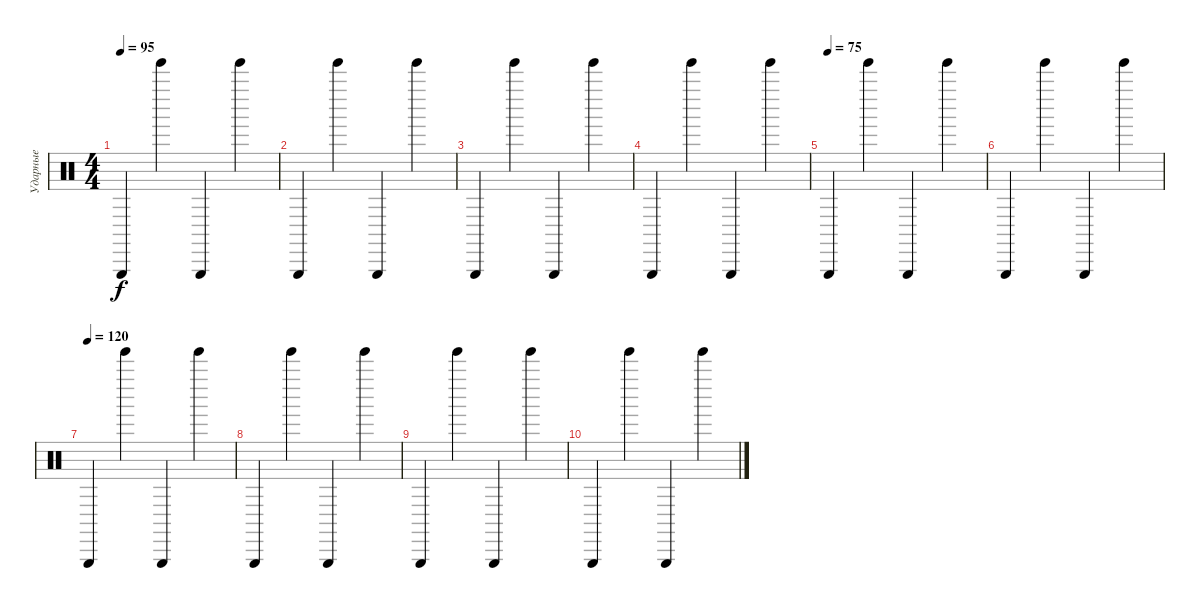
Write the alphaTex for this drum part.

\track ("Ударные" "Ударные") {instrument percussion}
\staff {score}
\articulation defaults
\ts (4 4)
\tempo 95
\clef neutral
\ks c "Triangle (hit)".4{dy f} "Tinkle Bell (hit)".4 "Triangle (hit)".4 "Tinkle Bell (hit)".4
|
"Triangle (hit)".4 "Tinkle Bell (hit)".4 "Triangle (hit)".4 "Tinkle Bell (hit)".4 |
"Triangle (hit)".4 "Tinkle Bell (hit)".4 "Triangle (hit)".4 "Tinkle Bell (hit)".4 |
"Triangle (hit)".4 "Tinkle Bell (hit)".4 "Triangle (hit)".4 "Tinkle Bell (hit)".4 |
\tempo (75)
"Triangle (hit)".4 "Tinkle Bell (hit)".4 "Triangle (hit)".4 "Tinkle Bell (hit)".4 |
"Triangle (hit)".4 "Tinkle Bell (hit)".4 "Triangle (hit)".4 "Tinkle Bell (hit)".4 |
\tempo (120)
"Triangle (hit)".4 "Tinkle Bell (hit)".4 "Triangle (hit)".4 "Tinkle Bell (hit)".4 |
"Triangle (hit)".4 "Tinkle Bell (hit)".4 "Triangle (hit)".4 "Tinkle Bell (hit)".4 |
"Triangle (hit)".4{volume 14} "Tinkle Bell (hit)".4{volume 12} "Triangle (hit)".4{volume 10} "Tinkle Bell (hit)".4{volume 8} |
"Triangle (hit)".4{volume 6} "Tinkle Bell (hit)".4{volume 4} "Triangle (hit)".4{volume 2} "Tinkle Bell (hit)".4{volume 0}
